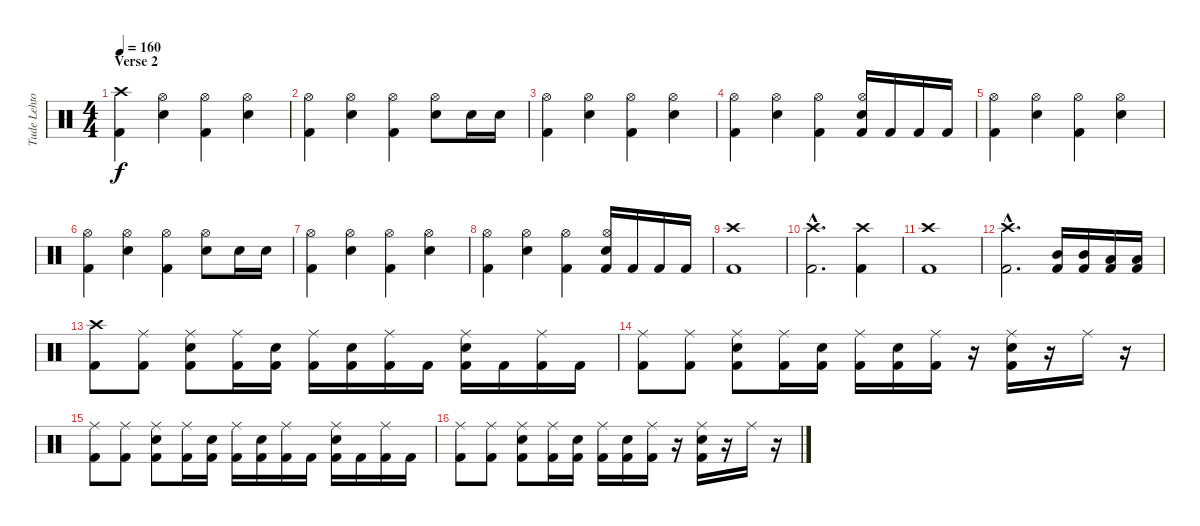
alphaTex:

\track ("Tude Lehtonen" "Tude Lehto") {instrument percussion}
\staff {score}
\articulation defaults
\ts (4 4)
\section ("" "Verse 2")
\tempo 160
\clef neutral
\ks c
("Crash high (hit)" "Kick (hit) 2").4{dy f} ("Hi-Hat (open)" "Snare (hit) 2").4 ("Hi-Hat (open)" "Kick (hit) 2").4 ("Hi-Hat (open)" "Snare (hit) 2").4 |
("Hi-Hat (open)" "Kick (hit) 2").4 ("Hi-Hat (open)" "Snare (hit) 2").4 ("Hi-Hat (open)" "Kick (hit) 2").4 ("Hi-Hat (open)" "Snare (hit) 2").8 "Snare (hit) 2".16 "Snare (hit) 2".16 |
("Hi-Hat (open)" "Kick (hit) 2").4 ("Hi-Hat (open)" "Snare (hit) 2").4 ("Hi-Hat (open)" "Kick (hit) 2").4 ("Hi-Hat (open)" "Snare (hit) 2").4 |
("Hi-Hat (open)" "Kick (hit) 2").4 ("Hi-Hat (open)" "Snare (hit) 2").4 ("Hi-Hat (open)" "Kick (hit) 2").4 ("Hi-Hat (open)" "Snare (hit) 2" "Kick (hit) 2").16 "Kick (hit) 2".16 "Kick (hit) 2".16 "Kick (hit) 2".16 |
("Hi-Hat (open)" "Kick (hit) 2").4 ("Hi-Hat (open)" "Snare (hit) 2").4 ("Hi-Hat (open)" "Kick (hit) 2").4 ("Hi-Hat (open)" "Snare (hit) 2").4 |
("Hi-Hat (open)" "Kick (hit) 2").4 ("Hi-Hat (open)" "Snare (hit) 2").4 ("Hi-Hat (open)" "Kick (hit) 2").4 ("Hi-Hat (open)" "Snare (hit) 2").8 "Snare (hit) 2".16 "Snare (hit) 2".16 |
("Hi-Hat (open)" "Kick (hit) 2").4 ("Hi-Hat (open)" "Snare (hit) 2").4 ("Hi-Hat (open)" "Kick (hit) 2").4 ("Hi-Hat (open)" "Snare (hit) 2").4 |
("Hi-Hat (open)" "Kick (hit) 2").4 ("Hi-Hat (open)" "Snare (hit) 2").4 ("Hi-Hat (open)" "Kick (hit) 2").4 ("Hi-Hat (open)" "Snare (hit) 2" "Kick (hit) 2").16 "Kick (hit) 2".16 "Kick (hit) 2".16 "Kick (hit) 2".16 |
("Crash high (hit)" "Kick (hit) 2").1 |
("Crash high (hit)"{hac} "Kick (hit) 2"{hac}).2{d} ("Crash high (hit)" "Kick (hit) 2").4 |
("Crash high (hit)" "Kick (hit) 2").1 |
("Crash high (hit)"{hac} "Kick (hit) 2"{hac}).2{d} ("Mid Tom (hit)" "Kick (hit) 2").16 ("Mid Tom (hit)" "Kick (hit) 2").16 ("Low Tom (hit)" "Kick (hit) 2").16 ("Low Tom (hit)" "Kick (hit) 2").16 |
("Crash high (hit)" "Kick (hit) 2").8 ("Ride (middle)" "Kick (hit) 2").8 ("Ride (middle)" "Snare (hit) 2" "Kick (hit) 2").8 ("Ride (middle)" "Kick (hit) 2").16 ("Snare (hit) 2" "Kick (hit) 2").16 ("Ride (middle)" "Kick (hit) 2").16 ("Snare (hit) 2" "Kick (hit) 2").16 ("Ride (middle)" "Kick (hit) 2").16 "Kick (hit) 2".16 ("Ride (middle)" "Snare (hit) 2" "Kick (hit) 2").16 "Kick (hit) 2".16 ("Ride (middle)" "Kick (hit) 2").16 "Kick (hit) 2".16 |
("Ride (middle)" "Kick (hit) 2").8 ("Ride (middle)" "Kick (hit) 2").8 ("Ride (middle)" "Snare (hit) 2" "Kick (hit) 2").8 ("Ride (middle)" "Kick (hit) 2").16 ("Snare (hit) 2" "Kick (hit) 2").16 ("Ride (middle)" "Kick (hit) 2").16 ("Snare (hit) 2" "Kick (hit) 2").16 ("Ride (middle)" "Kick (hit) 2").16 r.16 ("Ride (middle)" "Snare (hit) 2" "Kick (hit) 2").16 r.16 "Ride (middle)".16 r.16 |
("Ride (middle)" "Kick (hit) 2").8 ("Ride (middle)" "Kick (hit) 2").8 ("Ride (middle)" "Snare (hit) 2" "Kick (hit) 2").8 ("Ride (middle)" "Kick (hit) 2").16 ("Snare (hit) 2" "Kick (hit) 2").16 ("Ride (middle)" "Kick (hit) 2").16 ("Snare (hit) 2" "Kick (hit) 2").16 ("Ride (middle)" "Kick (hit) 2").16 "Kick (hit) 2".16 ("Ride (middle)" "Snare (hit) 2" "Kick (hit) 2").16 "Kick (hit) 2".16 ("Ride (middle)" "Kick (hit) 2").16 "Kick (hit) 2".16 |
("Ride (middle)" "Kick (hit) 2").8 ("Ride (middle)" "Kick (hit) 2").8 ("Ride (middle)" "Snare (hit) 2" "Kick (hit) 2").8 ("Ride (middle)" "Kick (hit) 2").16 ("Snare (hit) 2" "Kick (hit) 2").16 ("Ride (middle)" "Kick (hit) 2").16 ("Snare (hit) 2" "Kick (hit) 2").16 ("Ride (middle)" "Kick (hit) 2").16 r.16 ("Ride (middle)" "Snare (hit) 2" "Kick (hit) 2").16 r.16 "Ride (middle)".16 r.16
